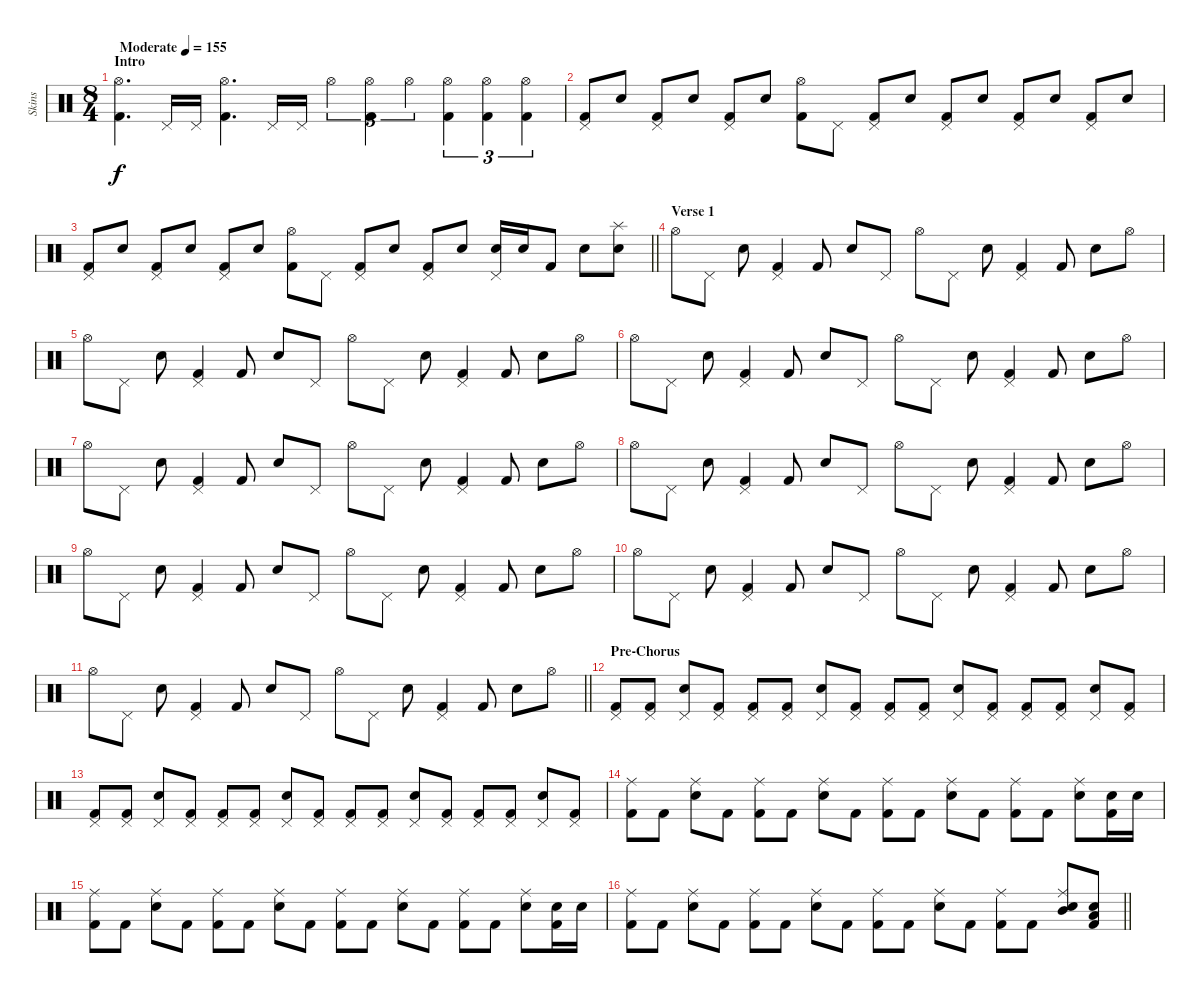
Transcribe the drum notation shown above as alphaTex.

\track ("Skins" "Skins") {instrument percussion}
\staff {score}
\articulation defaults
\ts (8 4)
\section ("" "Intro")
\tempo (155 "Moderate")
\clef neutral
\ks c
("Hi-Hat (open)" "Kick (hit) 2").4{d dy f} "Pedal Hi-Hat (hit)".16 "Pedal Hi-Hat (hit)".16 ("Hi-Hat (open)" "Kick (hit) 2").4{d} "Pedal Hi-Hat (hit)".16 "Pedal Hi-Hat (hit)".16 "Hi-Hat (open)".4{tu (3 2)} ("Hi-Hat (open)" "Kick (hit) 2").4{tu (3 2)} "Hi-Hat (open)".4{tu (3 2)} ("Hi-Hat (open)" "Kick (hit) 2").4{tu (3 2)} ("Hi-Hat (open)" "Kick (hit) 2").4{tu (3 2)} ("Hi-Hat (open)" "Kick (hit) 2").4{tu (3 2)} |
("Pedal Hi-Hat (hit)" "Kick (hit) 2").8 "Electric Snare (hit)".8 ("Pedal Hi-Hat (hit)" "Kick (hit) 2").8 "Electric Snare (hit)".8 ("Pedal Hi-Hat (hit)" "Kick (hit) 2").8 "Electric Snare (hit)".8 ("Hi-Hat (open)" "Kick (hit) 2").8 "Pedal Hi-Hat (hit)".8 ("Pedal Hi-Hat (hit)" "Kick (hit) 2").8 "Electric Snare (hit)".8 ("Pedal Hi-Hat (hit)" "Kick (hit) 2").8 "Electric Snare (hit)".8 ("Pedal Hi-Hat (hit)" "Kick (hit) 2").8 "Electric Snare (hit)".8 ("Pedal Hi-Hat (hit)" "Kick (hit) 2").8 "Electric Snare (hit)".8 |
\barLineRight lightlight
("Pedal Hi-Hat (hit)" "Kick (hit) 2").8 "Electric Snare (hit)".8 ("Pedal Hi-Hat (hit)" "Kick (hit) 2").8 "Electric Snare (hit)".8 ("Pedal Hi-Hat (hit)" "Kick (hit) 2").8 "Electric Snare (hit)".8 ("Hi-Hat (open)" "Kick (hit) 2").8 "Pedal Hi-Hat (hit)".8 ("Pedal Hi-Hat (hit)" "Kick (hit) 2").8 "Electric Snare (hit)".8 ("Pedal Hi-Hat (hit)" "Kick (hit) 2").8 "Electric Snare (hit)".8 ("Pedal Hi-Hat (hit)" "Electric Snare (hit)").16 "Electric Snare (hit)".16 "Kick (hit) 2".8 "Electric Snare (hit)".8 ("Splash (hit)" "Electric Snare (hit)").8 |
\section ("" "Verse 1")
"Hi-Hat (open)".8 "Pedal Hi-Hat (hit)".8 "Electric Snare (hit)".8 ("Pedal Hi-Hat (hit)" "Kick (hit) 2").4 "Kick (hit) 2".8 "Electric Snare (hit)".8 "Pedal Hi-Hat (hit)".8 "Hi-Hat (open)".8 "Pedal Hi-Hat (hit)".8 "Electric Snare (hit)".8 ("Pedal Hi-Hat (hit)" "Kick (hit) 2").4 "Kick (hit) 2".8 "Electric Snare (hit)".8 "Hi-Hat (open)".8 |
"Hi-Hat (open)".8 "Pedal Hi-Hat (hit)".8 "Electric Snare (hit)".8 ("Pedal Hi-Hat (hit)" "Kick (hit) 2").4 "Kick (hit) 2".8 "Electric Snare (hit)".8 "Pedal Hi-Hat (hit)".8 "Hi-Hat (open)".8 "Pedal Hi-Hat (hit)".8 "Electric Snare (hit)".8 ("Pedal Hi-Hat (hit)" "Kick (hit) 2").4 "Kick (hit) 2".8 "Electric Snare (hit)".8 "Hi-Hat (open)".8 |
"Hi-Hat (open)".8 "Pedal Hi-Hat (hit)".8 "Electric Snare (hit)".8 ("Pedal Hi-Hat (hit)" "Kick (hit) 2").4 "Kick (hit) 2".8 "Electric Snare (hit)".8 "Pedal Hi-Hat (hit)".8 "Hi-Hat (open)".8 "Pedal Hi-Hat (hit)".8 "Electric Snare (hit)".8 ("Pedal Hi-Hat (hit)" "Kick (hit) 2").4 "Kick (hit) 2".8 "Electric Snare (hit)".8 "Hi-Hat (open)".8 |
"Hi-Hat (open)".8 "Pedal Hi-Hat (hit)".8 "Electric Snare (hit)".8 ("Pedal Hi-Hat (hit)" "Kick (hit) 2").4 "Kick (hit) 2".8 "Electric Snare (hit)".8 "Pedal Hi-Hat (hit)".8 "Hi-Hat (open)".8 "Pedal Hi-Hat (hit)".8 "Electric Snare (hit)".8 ("Pedal Hi-Hat (hit)" "Kick (hit) 2").4 "Kick (hit) 2".8 "Electric Snare (hit)".8 "Hi-Hat (open)".8 |
"Hi-Hat (open)".8 "Pedal Hi-Hat (hit)".8 "Electric Snare (hit)".8 ("Pedal Hi-Hat (hit)" "Kick (hit) 2").4 "Kick (hit) 2".8 "Electric Snare (hit)".8 "Pedal Hi-Hat (hit)".8 "Hi-Hat (open)".8 "Pedal Hi-Hat (hit)".8 "Electric Snare (hit)".8 ("Pedal Hi-Hat (hit)" "Kick (hit) 2").4 "Kick (hit) 2".8 "Electric Snare (hit)".8 "Hi-Hat (open)".8 |
"Hi-Hat (open)".8 "Pedal Hi-Hat (hit)".8 "Electric Snare (hit)".8 ("Pedal Hi-Hat (hit)" "Kick (hit) 2").4 "Kick (hit) 2".8 "Electric Snare (hit)".8 "Pedal Hi-Hat (hit)".8 "Hi-Hat (open)".8 "Pedal Hi-Hat (hit)".8 "Electric Snare (hit)".8 ("Pedal Hi-Hat (hit)" "Kick (hit) 2").4 "Kick (hit) 2".8 "Electric Snare (hit)".8 "Hi-Hat (open)".8 |
"Hi-Hat (open)".8 "Pedal Hi-Hat (hit)".8 "Electric Snare (hit)".8 ("Pedal Hi-Hat (hit)" "Kick (hit) 2").4 "Kick (hit) 2".8 "Electric Snare (hit)".8 "Pedal Hi-Hat (hit)".8 "Hi-Hat (open)".8 "Pedal Hi-Hat (hit)".8 "Electric Snare (hit)".8 ("Pedal Hi-Hat (hit)" "Kick (hit) 2").4 "Kick (hit) 2".8 "Electric Snare (hit)".8 "Hi-Hat (open)".8 |
\barLineRight lightlight "Hi-Hat (open)".8 "Pedal Hi-Hat (hit)".8 "Electric Snare (hit)".8
("Pedal Hi-Hat (hit)" "Kick (hit) 2").4 "Kick (hit) 2".8 "Electric Snare (hit)".8 "Pedal Hi-Hat (hit)".8 "Hi-Hat (open)".8 "Pedal Hi-Hat (hit)".8 "Electric Snare (hit)".8 ("Pedal Hi-Hat (hit)" "Kick (hit) 2").4 "Kick (hit) 2".8 "Electric Snare (hit)".8 "Hi-Hat (open)".8 |
\section ("" "Pre-Chorus")
("Pedal Hi-Hat (hit)" "Kick (hit) 2").8 ("Pedal Hi-Hat (hit)" "Kick (hit) 2").8 ("Pedal Hi-Hat (hit)" "Electric Snare (hit)").8 ("Pedal Hi-Hat (hit)" "Kick (hit) 2").8 ("Pedal Hi-Hat (hit)" "Kick (hit) 2").8 ("Pedal Hi-Hat (hit)" "Kick (hit) 2").8 ("Pedal Hi-Hat (hit)" "Electric Snare (hit)").8 ("Pedal Hi-Hat (hit)" "Kick (hit) 2").8 ("Pedal Hi-Hat (hit)" "Kick (hit) 2").8 ("Pedal Hi-Hat (hit)" "Kick (hit) 2").8 ("Pedal Hi-Hat (hit)" "Electric Snare (hit)").8 ("Pedal Hi-Hat (hit)" "Kick (hit) 2").8 ("Pedal Hi-Hat (hit)" "Kick (hit) 2").8 ("Pedal Hi-Hat (hit)" "Kick (hit) 2").8 ("Pedal Hi-Hat (hit)" "Electric Snare (hit)").8 ("Pedal Hi-Hat (hit)" "Kick (hit) 2").8 |
("Pedal Hi-Hat (hit)" "Kick (hit) 2").8 ("Pedal Hi-Hat (hit)" "Kick (hit) 2").8 ("Pedal Hi-Hat (hit)" "Electric Snare (hit)").8 ("Pedal Hi-Hat (hit)" "Kick (hit) 2").8 ("Pedal Hi-Hat (hit)" "Kick (hit) 2").8 ("Pedal Hi-Hat (hit)" "Kick (hit) 2").8 ("Pedal Hi-Hat (hit)" "Electric Snare (hit)").8 ("Pedal Hi-Hat (hit)" "Kick (hit) 2").8 ("Pedal Hi-Hat (hit)" "Kick (hit) 2").8 ("Pedal Hi-Hat (hit)" "Kick (hit) 2").8 ("Pedal Hi-Hat (hit)" "Electric Snare (hit)").8 ("Pedal Hi-Hat (hit)" "Kick (hit) 2").8 ("Pedal Hi-Hat (hit)" "Kick (hit) 2").8 ("Pedal Hi-Hat (hit)" "Kick (hit) 2").8 ("Pedal Hi-Hat (hit)" "Electric Snare (hit)").8 ("Pedal Hi-Hat (hit)" "Kick (hit) 2").8 |
("Ride (middle)" "Kick (hit) 2").8 "Kick (hit) 2".8 ("Ride (middle)" "Electric Snare (hit)").8 "Kick (hit) 2".8 ("Ride (middle)" "Kick (hit) 2").8 "Kick (hit) 2".8 ("Ride (middle)" "Electric Snare (hit)").8 "Kick (hit) 2".8 ("Ride (middle)" "Kick (hit) 2").8 "Kick (hit) 2".8 ("Ride (middle)" "Electric Snare (hit)").8 "Kick (hit) 2".8 ("Ride (middle)" "Kick (hit) 2").8 "Kick (hit) 2".8 ("Ride (middle)" "Electric Snare (hit)").8 ("Electric Snare (hit)" "Kick (hit) 2").16 "Electric Snare (hit)".16 |
("Ride (middle)" "Kick (hit) 2").8 "Kick (hit) 2".8 ("Ride (middle)" "Electric Snare (hit)").8 "Kick (hit) 2".8 ("Ride (middle)" "Kick (hit) 2").8 "Kick (hit) 2".8 ("Ride (middle)" "Electric Snare (hit)").8 "Kick (hit) 2".8 ("Ride (middle)" "Kick (hit) 2").8 "Kick (hit) 2".8 ("Ride (middle)" "Electric Snare (hit)").8 "Kick (hit) 2".8 ("Ride (middle)" "Kick (hit) 2").8 "Kick (hit) 2".8 ("Ride (middle)" "Electric Snare (hit)").8 ("Electric Snare (hit)" "Kick (hit) 2").16 "Electric Snare (hit)".16 |
\barLineRight lightlight
("Ride (middle)" "Kick (hit) 2").8 "Kick (hit) 2".8 ("Ride (middle)" "Electric Snare (hit)").8 "Kick (hit) 2".8 ("Ride (middle)" "Kick (hit) 2").8 "Kick (hit) 2".8 ("Ride (middle)" "Electric Snare (hit)").8 "Kick (hit) 2".8 ("Ride (middle)" "Kick (hit) 2").8 "Kick (hit) 2".8 ("Ride (middle)" "Electric Snare (hit)").8 "Kick (hit) 2".8 ("Ride (middle)" "Kick (hit) 2").8 "Kick (hit) 2".8 ("Ride (middle)" "Mid Tom (hit)" "Electric Snare (hit)").8 ("Low Tom (hit)" "Electric Snare (hit)" "Kick (hit) 2").8
